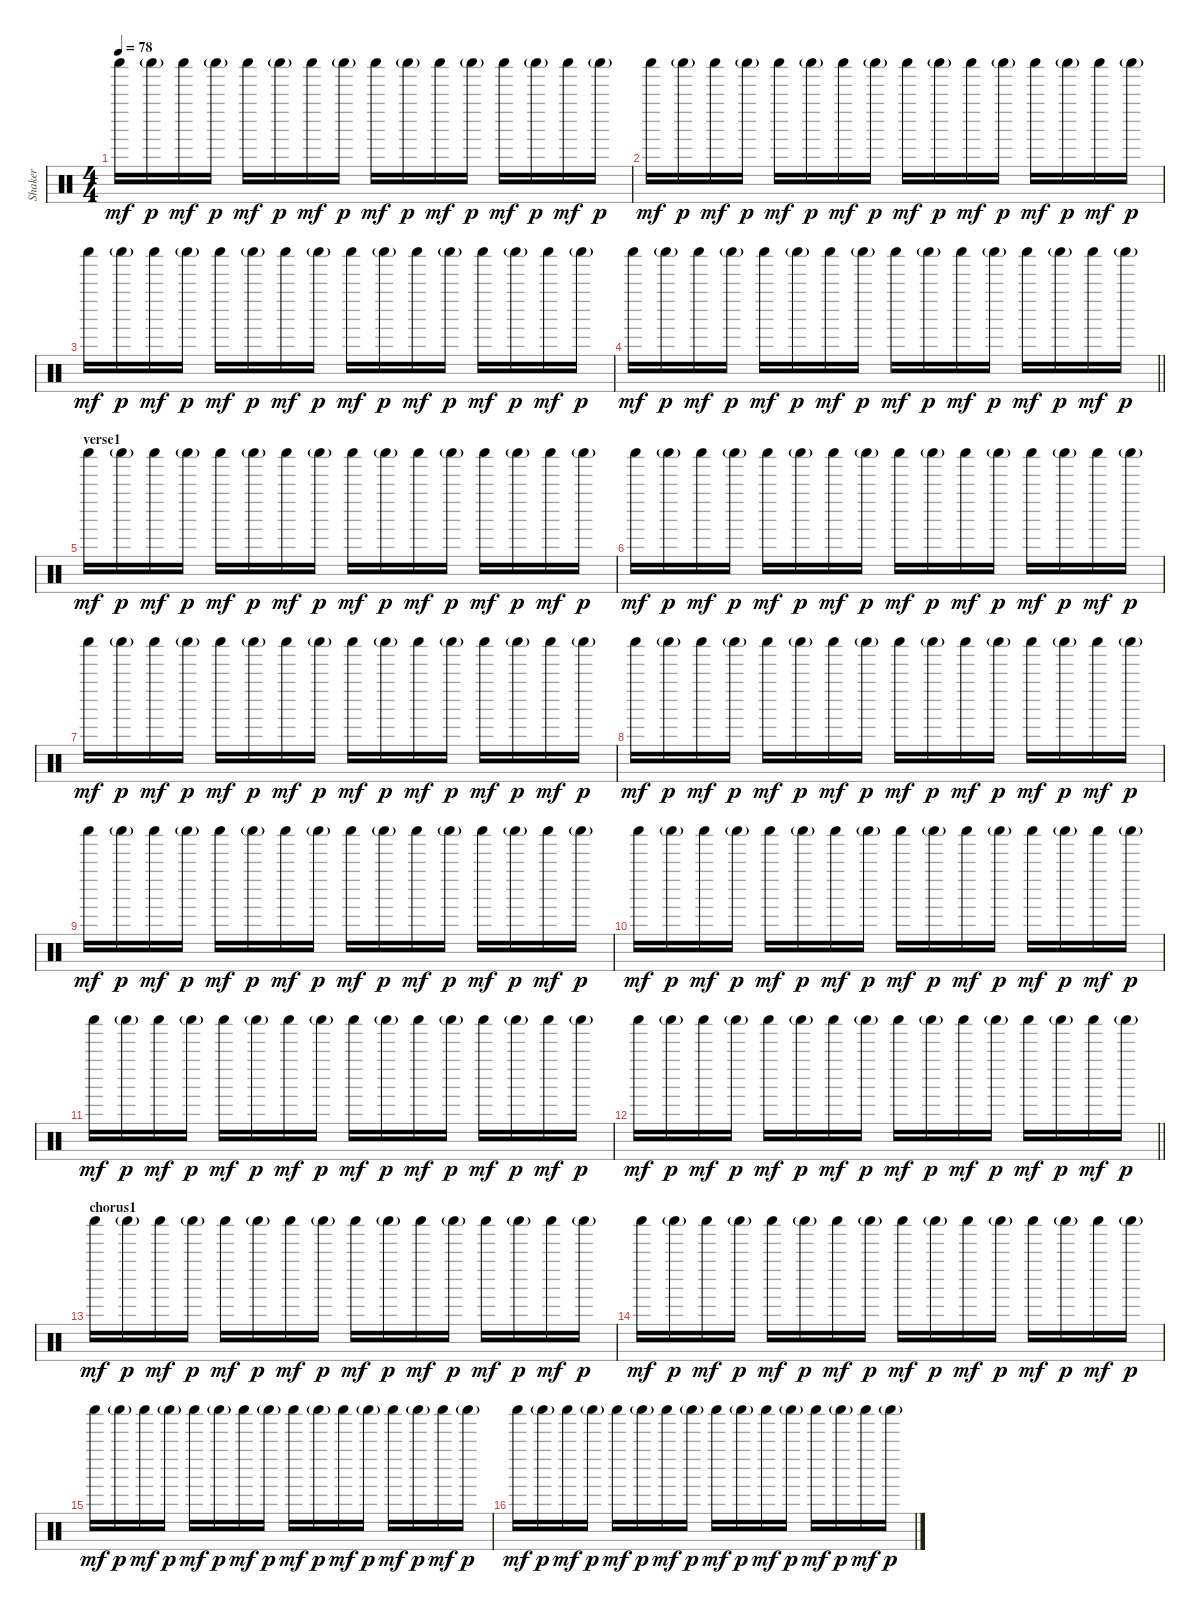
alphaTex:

\track ("Shaker" "Shaker") {instrument percussion}
\staff {score}
\articulation defaults
\ts (4 4)
\tempo 78
\clef neutral
\ks c "Shaker (hit)".16{dy mf} "Shaker (hit)"{g}.16{dy p} "Shaker (hit)".16{dy mf} "Shaker (hit)"{g}.16{dy p} "Shaker (hit)".16{dy mf} "Shaker (hit)"{g}.16{dy p} "Shaker (hit)".16{dy mf} "Shaker (hit)"{g}.16{dy p} "Shaker (hit)".16{dy mf} "Shaker (hit)"{g}.16{dy p} "Shaker (hit)".16{dy mf} "Shaker (hit)"{g}.16{dy p} "Shaker (hit)".16{dy mf} "Shaker (hit)"{g}.16{dy p} "Shaker (hit)".16{dy mf} "Shaker (hit)"{g}.16{dy p}
|
"Shaker (hit)".16{dy mf} "Shaker (hit)"{g}.16{dy p} "Shaker (hit)".16{dy mf} "Shaker (hit)"{g}.16{dy p} "Shaker (hit)".16{dy mf} "Shaker (hit)"{g}.16{dy p} "Shaker (hit)".16{dy mf} "Shaker (hit)"{g}.16{dy p} "Shaker (hit)".16{dy mf} "Shaker (hit)"{g}.16{dy p} "Shaker (hit)".16{dy mf} "Shaker (hit)"{g}.16{dy p} "Shaker (hit)".16{dy mf} "Shaker (hit)"{g}.16{dy p} "Shaker (hit)".16{dy mf} "Shaker (hit)"{g}.16{dy p} |
"Shaker (hit)".16{dy mf} "Shaker (hit)"{g}.16{dy p} "Shaker (hit)".16{dy mf} "Shaker (hit)"{g}.16{dy p} "Shaker (hit)".16{dy mf} "Shaker (hit)"{g}.16{dy p} "Shaker (hit)".16{dy mf} "Shaker (hit)"{g}.16{dy p} "Shaker (hit)".16{dy mf} "Shaker (hit)"{g}.16{dy p} "Shaker (hit)".16{dy mf} "Shaker (hit)"{g}.16{dy p} "Shaker (hit)".16{dy mf} "Shaker (hit)"{g}.16{dy p} "Shaker (hit)".16{dy mf} "Shaker (hit)"{g}.16{dy p} |
\barLineRight lightlight "Shaker (hit)".16{dy mf} "Shaker (hit)"{g}.16{dy p} "Shaker (hit)".16{dy mf} "Shaker (hit)"{g}.16{dy p} "Shaker (hit)".16{dy mf} "Shaker (hit)"{g}.16{dy p} "Shaker (hit)".16{dy mf} "Shaker (hit)"{g}.16{dy p} "Shaker (hit)".16{dy mf} "Shaker (hit)"{g}.16{dy p} "Shaker (hit)".16{dy mf} "Shaker (hit)"{g}.16{dy p} "Shaker (hit)".16{dy mf} "Shaker (hit)"{g}.16{dy p} "Shaker (hit)".16{dy mf} "Shaker (hit)"{g}.16{dy p}
|
\section ("" "verse1")
"Shaker (hit)".16{dy mf} "Shaker (hit)"{g}.16{dy p} "Shaker (hit)".16{dy mf} "Shaker (hit)"{g}.16{dy p} "Shaker (hit)".16{dy mf} "Shaker (hit)"{g}.16{dy p} "Shaker (hit)".16{dy mf} "Shaker (hit)"{g}.16{dy p} "Shaker (hit)".16{dy mf} "Shaker (hit)"{g}.16{dy p} "Shaker (hit)".16{dy mf} "Shaker (hit)"{g}.16{dy p} "Shaker (hit)".16{dy mf} "Shaker (hit)"{g}.16{dy p} "Shaker (hit)".16{dy mf} "Shaker (hit)"{g}.16{dy p} |
"Shaker (hit)".16{dy mf} "Shaker (hit)"{g}.16{dy p} "Shaker (hit)".16{dy mf} "Shaker (hit)"{g}.16{dy p} "Shaker (hit)".16{dy mf} "Shaker (hit)"{g}.16{dy p} "Shaker (hit)".16{dy mf} "Shaker (hit)"{g}.16{dy p} "Shaker (hit)".16{dy mf} "Shaker (hit)"{g}.16{dy p} "Shaker (hit)".16{dy mf} "Shaker (hit)"{g}.16{dy p} "Shaker (hit)".16{dy mf} "Shaker (hit)"{g}.16{dy p} "Shaker (hit)".16{dy mf} "Shaker (hit)"{g}.16{dy p} |
"Shaker (hit)".16{dy mf} "Shaker (hit)"{g}.16{dy p} "Shaker (hit)".16{dy mf} "Shaker (hit)"{g}.16{dy p} "Shaker (hit)".16{dy mf} "Shaker (hit)"{g}.16{dy p} "Shaker (hit)".16{dy mf} "Shaker (hit)"{g}.16{dy p} "Shaker (hit)".16{dy mf} "Shaker (hit)"{g}.16{dy p} "Shaker (hit)".16{dy mf} "Shaker (hit)"{g}.16{dy p} "Shaker (hit)".16{dy mf} "Shaker (hit)"{g}.16{dy p} "Shaker (hit)".16{dy mf} "Shaker (hit)"{g}.16{dy p} |
"Shaker (hit)".16{dy mf} "Shaker (hit)"{g}.16{dy p} "Shaker (hit)".16{dy mf} "Shaker (hit)"{g}.16{dy p} "Shaker (hit)".16{dy mf} "Shaker (hit)"{g}.16{dy p} "Shaker (hit)".16{dy mf} "Shaker (hit)"{g}.16{dy p} "Shaker (hit)".16{dy mf} "Shaker (hit)"{g}.16{dy p} "Shaker (hit)".16{dy mf} "Shaker (hit)"{g}.16{dy p} "Shaker (hit)".16{dy mf} "Shaker (hit)"{g}.16{dy p} "Shaker (hit)".16{dy mf} "Shaker (hit)"{g}.16{dy p} |
"Shaker (hit)".16{dy mf} "Shaker (hit)"{g}.16{dy p} "Shaker (hit)".16{dy mf} "Shaker (hit)"{g}.16{dy p} "Shaker (hit)".16{dy mf} "Shaker (hit)"{g}.16{dy p} "Shaker (hit)".16{dy mf} "Shaker (hit)"{g}.16{dy p} "Shaker (hit)".16{dy mf} "Shaker (hit)"{g}.16{dy p} "Shaker (hit)".16{dy mf} "Shaker (hit)"{g}.16{dy p} "Shaker (hit)".16{dy mf} "Shaker (hit)"{g}.16{dy p} "Shaker (hit)".16{dy mf} "Shaker (hit)"{g}.16{dy p} |
"Shaker (hit)".16{dy mf} "Shaker (hit)"{g}.16{dy p} "Shaker (hit)".16{dy mf} "Shaker (hit)"{g}.16{dy p} "Shaker (hit)".16{dy mf} "Shaker (hit)"{g}.16{dy p} "Shaker (hit)".16{dy mf} "Shaker (hit)"{g}.16{dy p} "Shaker (hit)".16{dy mf} "Shaker (hit)"{g}.16{dy p} "Shaker (hit)".16{dy mf} "Shaker (hit)"{g}.16{dy p} "Shaker (hit)".16{dy mf} "Shaker (hit)"{g}.16{dy p} "Shaker (hit)".16{dy mf} "Shaker (hit)"{g}.16{dy p} |
"Shaker (hit)".16{dy mf} "Shaker (hit)"{g}.16{dy p} "Shaker (hit)".16{dy mf} "Shaker (hit)"{g}.16{dy p} "Shaker (hit)".16{dy mf} "Shaker (hit)"{g}.16{dy p} "Shaker (hit)".16{dy mf} "Shaker (hit)"{g}.16{dy p} "Shaker (hit)".16{dy mf} "Shaker (hit)"{g}.16{dy p} "Shaker (hit)".16{dy mf} "Shaker (hit)"{g}.16{dy p} "Shaker (hit)".16{dy mf} "Shaker (hit)"{g}.16{dy p} "Shaker (hit)".16{dy mf} "Shaker (hit)"{g}.16{dy p} |
\barLineRight lightlight "Shaker (hit)".16{dy mf} "Shaker (hit)"{g}.16{dy p} "Shaker (hit)".16{dy mf} "Shaker (hit)"{g}.16{dy p} "Shaker (hit)".16{dy mf} "Shaker (hit)"{g}.16{dy p} "Shaker (hit)".16{dy mf} "Shaker (hit)"{g}.16{dy p} "Shaker (hit)".16{dy mf} "Shaker (hit)"{g}.16{dy p} "Shaker (hit)".16{dy mf} "Shaker (hit)"{g}.16{dy p} "Shaker (hit)".16{dy mf} "Shaker (hit)"{g}.16{dy p} "Shaker (hit)".16{dy mf} "Shaker (hit)"{g}.16{dy p}
|
\section ("" "chorus1")
"Shaker (hit)".16{dy mf} "Shaker (hit)"{g}.16{dy p} "Shaker (hit)".16{dy mf} "Shaker (hit)"{g}.16{dy p} "Shaker (hit)".16{dy mf} "Shaker (hit)"{g}.16{dy p} "Shaker (hit)".16{dy mf} "Shaker (hit)"{g}.16{dy p} "Shaker (hit)".16{dy mf} "Shaker (hit)"{g}.16{dy p} "Shaker (hit)".16{dy mf} "Shaker (hit)"{g}.16{dy p} "Shaker (hit)".16{dy mf} "Shaker (hit)"{g}.16{dy p} "Shaker (hit)".16{dy mf} "Shaker (hit)"{g}.16{dy p} |
"Shaker (hit)".16{dy mf} "Shaker (hit)"{g}.16{dy p} "Shaker (hit)".16{dy mf} "Shaker (hit)"{g}.16{dy p} "Shaker (hit)".16{dy mf} "Shaker (hit)"{g}.16{dy p} "Shaker (hit)".16{dy mf} "Shaker (hit)"{g}.16{dy p} "Shaker (hit)".16{dy mf} "Shaker (hit)"{g}.16{dy p} "Shaker (hit)".16{dy mf} "Shaker (hit)"{g}.16{dy p} "Shaker (hit)".16{dy mf} "Shaker (hit)"{g}.16{dy p} "Shaker (hit)".16{dy mf} "Shaker (hit)"{g}.16{dy p} |
"Shaker (hit)".16{dy mf} "Shaker (hit)"{g}.16{dy p} "Shaker (hit)".16{dy mf} "Shaker (hit)"{g}.16{dy p} "Shaker (hit)".16{dy mf} "Shaker (hit)"{g}.16{dy p} "Shaker (hit)".16{dy mf} "Shaker (hit)"{g}.16{dy p} "Shaker (hit)".16{dy mf} "Shaker (hit)"{g}.16{dy p} "Shaker (hit)".16{dy mf} "Shaker (hit)"{g}.16{dy p} "Shaker (hit)".16{dy mf} "Shaker (hit)"{g}.16{dy p} "Shaker (hit)".16{dy mf} "Shaker (hit)"{g}.16{dy p} |
"Shaker (hit)".16{dy mf} "Shaker (hit)"{g}.16{dy p} "Shaker (hit)".16{dy mf} "Shaker (hit)"{g}.16{dy p} "Shaker (hit)".16{dy mf} "Shaker (hit)"{g}.16{dy p} "Shaker (hit)".16{dy mf} "Shaker (hit)"{g}.16{dy p} "Shaker (hit)".16{dy mf} "Shaker (hit)"{g}.16{dy p} "Shaker (hit)".16{dy mf} "Shaker (hit)"{g}.16{dy p} "Shaker (hit)".16{dy mf} "Shaker (hit)"{g}.16{dy p} "Shaker (hit)".16{dy mf} "Shaker (hit)"{g}.16{dy p}
